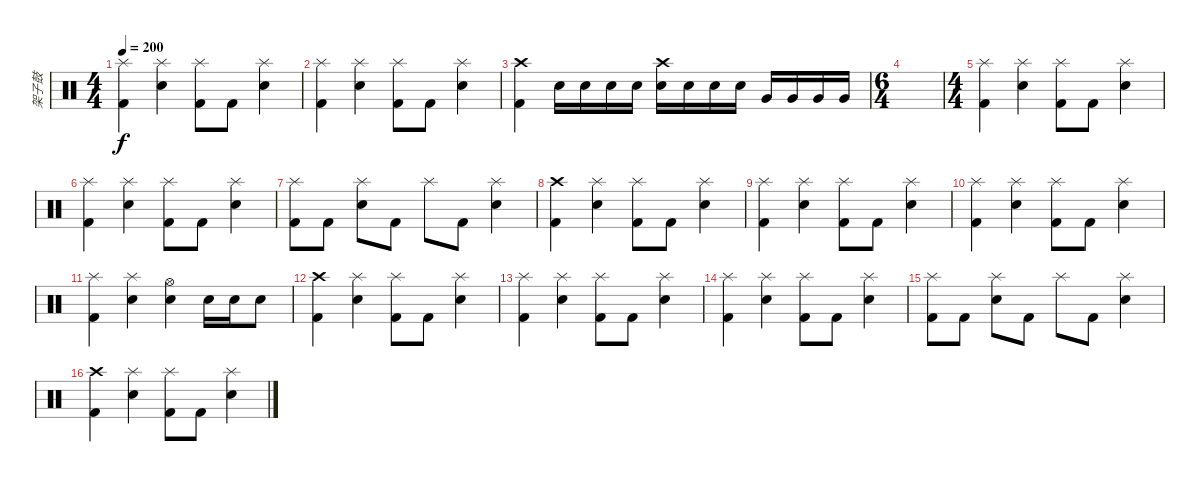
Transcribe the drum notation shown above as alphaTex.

\track ("架子鼓" "架子鼓") {instrument percussion}
\staff {score}
\articulation defaults
\ts (4 4)
\tempo 200
\clef neutral
\ks c
("Splash (hit)" "Kick (hit) 2").4{dy f} ("Splash (hit)" "Snare (hit) 2").4 ("Splash (hit)" "Kick (hit) 2").8 "Kick (hit) 2".8 ("Splash (hit)" "Snare (hit) 2").4 |
("Splash (hit)" "Kick (hit) 2").4 ("Splash (hit)" "Snare (hit) 2").4 ("Splash (hit)" "Kick (hit) 2").8 "Kick (hit) 2".8 ("Splash (hit)" "Snare (hit) 2").4 |
("Crash high (hit)" "Kick (hit) 2").4 "Snare (hit) 2".16 "Snare (hit) 2".16 "Snare (hit) 2".16 "Snare (hit) 2".16 ("Crash high (hit)" "Electric Snare (hit)").16 "Electric Snare (hit)".16 "Electric Snare (hit)".16 "Electric Snare (hit)".16 "Very Low Tom (hit)".16 "Very Low Tom (hit)".16 "Very Low Tom (hit)".16 "Very Low Tom (hit)".16 |
\ts (6 4)
|
\ts (4 4)
("Splash (hit)" "Kick (hit) 2").4 ("Splash (hit)" "Snare (hit) 2").4 ("Splash (hit)" "Kick (hit) 2").8 "Kick (hit) 2".8 ("Splash (hit)" "Snare (hit) 2").4 |
("Splash (hit)" "Kick (hit) 2").4 ("Splash (hit)" "Snare (hit) 2").4 ("Splash (hit)" "Kick (hit) 2").8 "Kick (hit) 2".8 ("Splash (hit)" "Snare (hit) 2").4 |
("Splash (hit)" "Kick (hit) 2").8 "Kick (hit) 2".8 ("Splash (hit)" "Snare (hit) 2").8 "Kick (hit) 2".8 "Splash (hit)".8 "Kick (hit) 2".8 ("Splash (hit)" "Snare (hit) 2").4 |
("Crash high (hit)" "Kick (hit) 2").4 ("Splash (hit)" "Snare (hit) 2").4 ("Splash (hit)" "Kick (hit) 2").8 "Kick (hit) 2".8 ("Splash (hit)" "Snare (hit) 2").4 |
("Splash (hit)" "Kick (hit) 2").4 ("Splash (hit)" "Snare (hit) 2").4 ("Splash (hit)" "Kick (hit) 2").8 "Kick (hit) 2".8 ("Splash (hit)" "Snare (hit) 2").4 |
("Splash (hit)" "Kick (hit) 2").4 ("Splash (hit)" "Snare (hit) 2").4 ("Splash (hit)" "Kick (hit) 2").8 "Kick (hit) 2".8 ("Splash (hit)" "Snare (hit) 2").4 |
("Splash (hit)" "Kick (hit) 2").4 ("Splash (hit)" "Snare (hit) 2").4 ("Hi-Hat (open)" "Snare (hit) 2").4 "Snare (hit) 2".16 "Snare (hit) 2".16 "Snare (hit) 2".8 |
("Crash high (hit)" "Kick (hit) 2").4 ("Splash (hit)" "Snare (hit) 2").4 ("Splash (hit)" "Kick (hit) 2").8 "Kick (hit) 2".8 ("Splash (hit)" "Snare (hit) 2").4 |
("Splash (hit)" "Kick (hit) 2").4 ("Splash (hit)" "Snare (hit) 2").4 ("Splash (hit)" "Kick (hit) 2").8 "Kick (hit) 2".8 ("Splash (hit)" "Snare (hit) 2").4 |
("Splash (hit)" "Kick (hit) 2").4 ("Splash (hit)" "Snare (hit) 2").4 ("Splash (hit)" "Kick (hit) 2").8 "Kick (hit) 2".8 ("Splash (hit)" "Snare (hit) 2").4 |
("Splash (hit)" "Kick (hit) 2").8 "Kick (hit) 2".8 ("Splash (hit)" "Snare (hit) 2").8 "Kick (hit) 2".8 "Splash (hit)".8 "Kick (hit) 2".8 ("Splash (hit)" "Snare (hit) 2").4 |
("Crash high (hit)" "Kick (hit) 2").4 ("Splash (hit)" "Snare (hit) 2").4 ("Splash (hit)" "Kick (hit) 2").8 "Kick (hit) 2".8 ("Splash (hit)" "Snare (hit) 2").4
